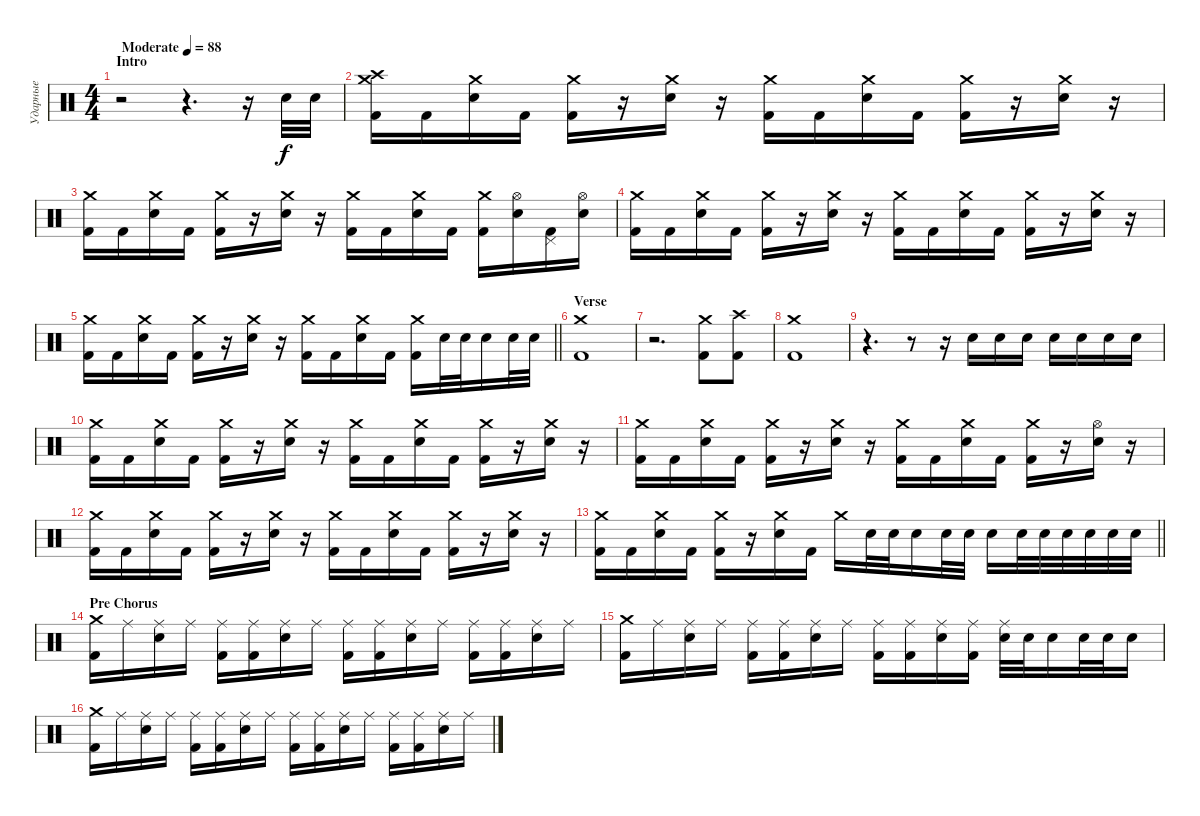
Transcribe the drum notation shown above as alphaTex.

\track ("Ударные" "Ударные") {instrument percussion}
\staff {score}
\articulation defaults
\ts (4 4)
\section ("" "Intro")
\tempo (88 "Moderate")
\clef neutral
\ks c
r.2{dy f} r.4{d} r.16 "Electric Snare (hit)".32 "Electric Snare (hit)".32 |
("Crash high (hit)" "Crash medium (hit)" "Kick (hit) 2").16 "Kick (hit) 2".16 ("Crash medium (hit)" "Electric Snare (hit)").16 "Kick (hit) 2".16 ("Crash medium (hit)" "Kick (hit) 2").16 r.16 ("Crash medium (hit)" "Electric Snare (hit)").16 r.16 ("Crash medium (hit)" "Kick (hit) 2").16 "Kick (hit) 2".16 ("Crash medium (hit)" "Electric Snare (hit)").16 "Kick (hit) 2".16 ("Crash medium (hit)" "Kick (hit) 2").16 r.16 ("Crash medium (hit)" "Electric Snare (hit)").16 r.16 |
("Crash medium (hit)" "Kick (hit) 2").16 "Kick (hit) 2".16 ("Crash medium (hit)" "Electric Snare (hit)").16 "Kick (hit) 2".16 ("Crash medium (hit)" "Kick (hit) 2").16 r.16 ("Crash medium (hit)" "Electric Snare (hit)").16 r.16 ("Crash medium (hit)" "Kick (hit) 2").16 "Kick (hit) 2".16 ("Crash medium (hit)" "Electric Snare (hit)").16 "Kick (hit) 2".16 ("Crash medium (hit)" "Kick (hit) 2").16 ("Hi-Hat (open)" "Electric Snare (hit)").16 ("Pedal Hi-Hat (hit)" "Kick (hit) 2").16 ("Hi-Hat (open)" "Electric Snare (hit)").16 |
("Crash medium (hit)" "Kick (hit) 2").16 "Kick (hit) 2".16 ("Crash medium (hit)" "Electric Snare (hit)").16 "Kick (hit) 2".16 ("Crash medium (hit)" "Kick (hit) 2").16 r.16 ("Crash medium (hit)" "Electric Snare (hit)").16 r.16 ("Crash medium (hit)" "Kick (hit) 2").16 "Kick (hit) 2".16 ("Crash medium (hit)" "Electric Snare (hit)").16 "Kick (hit) 2".16 ("Crash medium (hit)" "Kick (hit) 2").16 r.16 ("Crash medium (hit)" "Electric Snare (hit)").16 r.16 |
\barLineRight lightlight
("Crash medium (hit)" "Kick (hit) 2").16 "Kick (hit) 2".16 ("Crash medium (hit)" "Electric Snare (hit)").16 "Kick (hit) 2".16 ("Crash medium (hit)" "Kick (hit) 2").16 r.16 ("Crash medium (hit)" "Electric Snare (hit)").16 r.16 ("Crash medium (hit)" "Kick (hit) 2").16 "Kick (hit) 2".16 ("Crash medium (hit)" "Electric Snare (hit)").16 "Kick (hit) 2".16 ("Crash medium (hit)" "Kick (hit) 2").16 "Electric Snare (hit)".32 "Electric Snare (hit)".32 "Electric Snare (hit)".16 "Electric Snare (hit)".32 "Electric Snare (hit)".32 |
\section ("" "Verse")
("Crash medium (hit)" "Kick (hit) 2").1 |
r.2{d} ("Crash medium (hit)" "Kick (hit) 2").8 ("Crash high (hit)" "Kick (hit) 2").8 |
("Crash medium (hit)" "Kick (hit) 2").1 |
r.4{d} r.8 r.16 "Electric Snare (hit)".16 "Electric Snare (hit)".16 "Electric Snare (hit)".16 "Electric Snare (hit)".16 "Electric Snare (hit)".16 "Electric Snare (hit)".16 "Electric Snare (hit)".16 |
("Crash medium (hit)" "Kick (hit) 2").16 "Kick (hit) 2".16 ("Crash medium (hit)" "Electric Snare (hit)").16 "Kick (hit) 2".16 ("Crash medium (hit)" "Kick (hit) 2").16 r.16 ("Crash medium (hit)" "Electric Snare (hit)").16 r.16 ("Crash medium (hit)" "Kick (hit) 2").16 "Kick (hit) 2".16 ("Crash medium (hit)" "Electric Snare (hit)").16 "Kick (hit) 2".16 ("Crash medium (hit)" "Kick (hit) 2").16 r.16 ("Crash medium (hit)" "Electric Snare (hit)").16 r.16 |
("Crash medium (hit)" "Kick (hit) 2").16 "Kick (hit) 2".16 ("Crash medium (hit)" "Electric Snare (hit)").16 "Kick (hit) 2".16 ("Crash medium (hit)" "Kick (hit) 2").16 r.16 ("Crash medium (hit)" "Electric Snare (hit)").16 r.16 ("Crash medium (hit)" "Kick (hit) 2").16 "Kick (hit) 2".16 ("Crash medium (hit)" "Electric Snare (hit)").16 "Kick (hit) 2".16 ("Crash medium (hit)" "Kick (hit) 2").16 r.16 ("Hi-Hat (open)" "Electric Snare (hit)").16 r.16 |
("Crash medium (hit)" "Kick (hit) 2").16 "Kick (hit) 2".16 ("Crash medium (hit)" "Electric Snare (hit)").16 "Kick (hit) 2".16 ("Crash medium (hit)" "Kick (hit) 2").16 r.16 ("Crash medium (hit)" "Electric Snare (hit)").16 r.16 ("Crash medium (hit)" "Kick (hit) 2").16 "Kick (hit) 2".16 ("Crash medium (hit)" "Electric Snare (hit)").16 "Kick (hit) 2".16 ("Crash medium (hit)" "Kick (hit) 2").16 r.16 ("Crash medium (hit)" "Electric Snare (hit)").16 r.16 |
\barLineRight lightlight
("Crash medium (hit)" "Kick (hit) 2").16 "Kick (hit) 2".16 ("Crash medium (hit)" "Electric Snare (hit)").16 "Kick (hit) 2".16 ("Crash medium (hit)" "Kick (hit) 2").16 r.16 ("Crash medium (hit)" "Electric Snare (hit)").16 "Kick (hit) 2".16 "Crash medium (hit)".16 "Electric Snare (hit)".32 "Electric Snare (hit)".32 "Electric Snare (hit)".16 "Electric Snare (hit)".32 "Electric Snare (hit)".32 "Electric Snare (hit)".16 "Electric Snare (hit)".32 "Electric Snare (hit)".32 "Electric Snare (hit)".32 "Electric Snare (hit)".32 "Electric Snare (hit)".32 "Electric Snare (hit)".32 |
\section ("" "Pre Chorus")
("Crash medium (hit)" "Kick (hit) 2").16 "Ride (middle)".16 ("Ride (middle)" "Electric Snare (hit)").16 "Ride (middle)".16 ("Ride (middle)" "Kick (hit) 2").16 ("Ride (middle)" "Kick (hit) 2").16 ("Ride (middle)" "Electric Snare (hit)").16 "Ride (middle)".16 ("Ride (middle)" "Kick (hit) 2").16 ("Ride (middle)" "Kick (hit) 2").16 ("Ride (middle)" "Electric Snare (hit)").16 "Ride (middle)".16 ("Ride (middle)" "Kick (hit) 2").16 ("Ride (middle)" "Kick (hit) 2").16 ("Ride (middle)" "Electric Snare (hit)").16 "Ride (middle)".16 |
("Crash medium (hit)" "Kick (hit) 2").16 "Ride (middle)".16 ("Ride (middle)" "Electric Snare (hit)").16 "Ride (middle)".16 ("Ride (middle)" "Kick (hit) 2").16 ("Ride (middle)" "Kick (hit) 2").16 ("Ride (middle)" "Electric Snare (hit)").16 "Ride (middle)".16 ("Ride (middle)" "Kick (hit) 2").16 ("Ride (middle)" "Kick (hit) 2").16 ("Ride (middle)" "Electric Snare (hit)").16 ("Ride (middle)" "Kick (hit) 2").16 ("Ride (middle)" "Electric Snare (hit)").32 "Electric Snare (hit)".32 "Electric Snare (hit)".16 "Electric Snare (hit)".32 "Electric Snare (hit)".32 "Electric Snare (hit)".16 |
("Crash medium (hit)" "Kick (hit) 2").16 "Ride (middle)".16 ("Ride (middle)" "Electric Snare (hit)").16 "Ride (middle)".16 ("Ride (middle)" "Kick (hit) 2").16 ("Ride (middle)" "Kick (hit) 2").16 ("Ride (middle)" "Electric Snare (hit)").16 "Ride (middle)".16 ("Ride (middle)" "Kick (hit) 2").16 ("Ride (middle)" "Kick (hit) 2").16 ("Ride (middle)" "Electric Snare (hit)").16 "Ride (middle)".16 ("Ride (middle)" "Kick (hit) 2").16 ("Ride (middle)" "Kick (hit) 2").16 ("Ride (middle)" "Electric Snare (hit)").16 "Ride (middle)".16
